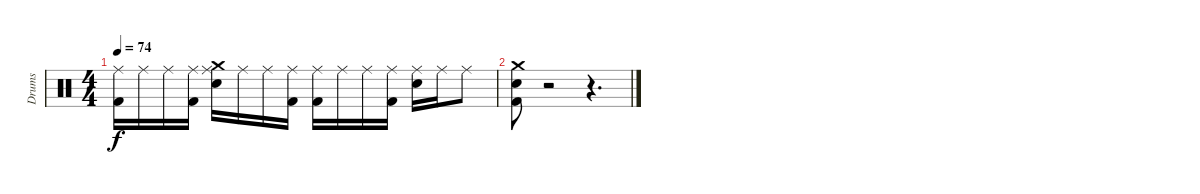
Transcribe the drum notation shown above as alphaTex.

\track ("Drums" "Drums") {instrument percussion}
\staff {score}
\articulation defaults
\ts (4 4)
\tempo 74
\clef neutral
\ks c
("Ride (middle)" "Kick (hit) 2").16{dy f} "Ride (middle)".16 "Ride (middle)".16 ("Ride (middle)" "Kick (hit) 2").16 ("Ride (middle)" "Snare (hit) 2" "Crash medium (hit)").16 "Ride (middle)".16 "Ride (middle)".16 ("Ride (middle)" "Kick (hit) 2").16 ("Ride (middle)" "Kick (hit) 2").16 "Ride (middle)".16 "Ride (middle)".16 ("Ride (middle)" "Kick (hit) 2").16 ("Ride (middle)" "Snare (hit) 2").16 "Ride (middle)".16 "Ride (middle)".8 |
("Kick (hit) 2" "Snare (hit) 2" "Crash medium (hit)").8 r.2 r.4{d}
